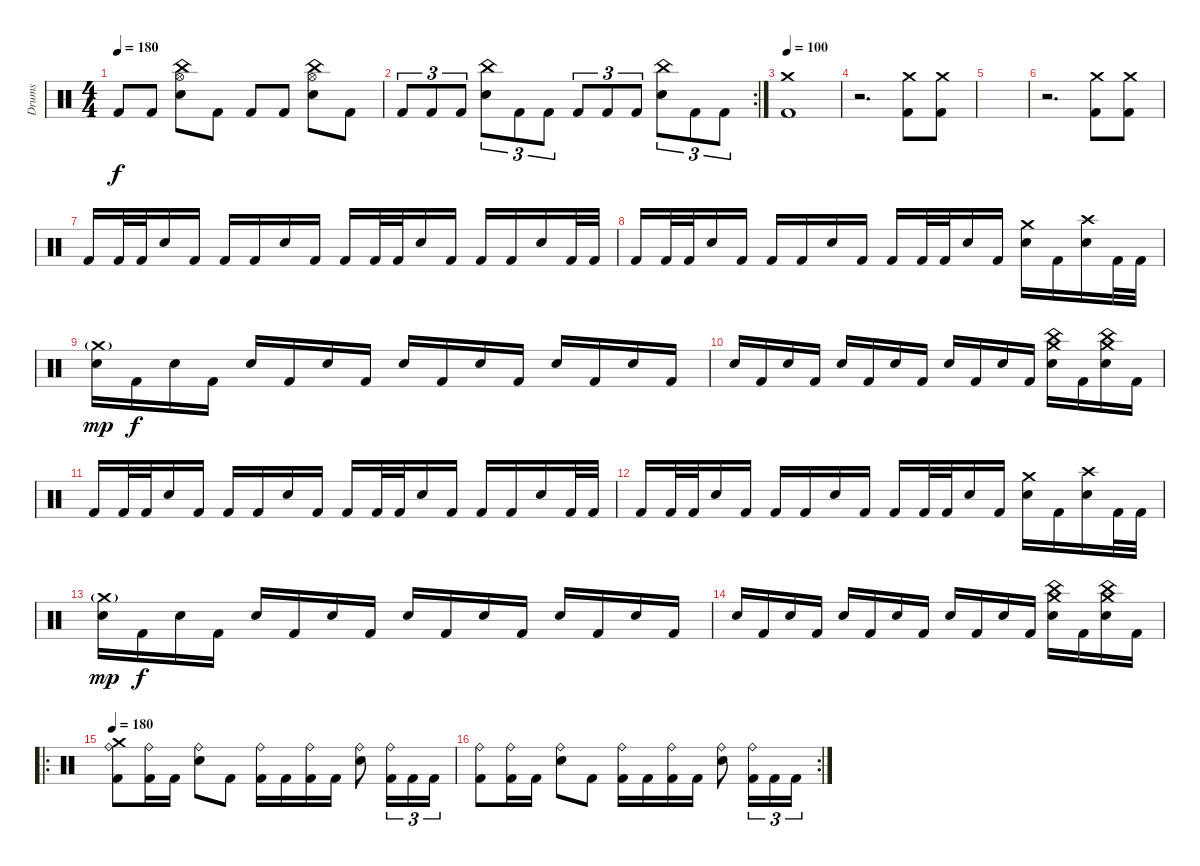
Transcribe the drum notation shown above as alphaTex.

\track ("Drums" "Drums") {instrument percussion}
\staff {score}
\articulation defaults
\ts (4 4)
\tempo 180
\clef neutral
\ks c "Kick (hit) 2".8{dy f} "Kick (hit) 2".8
("Electric Snare (hit)" "Hi-Hat (open)" "China (hit)").8 "Kick (hit) 2".8 "Kick (hit) 2".8 "Kick (hit) 2".8 ("Electric Snare (hit)" "Hi-Hat (open)" "China (hit)").8 "Kick (hit) 2".8 |
\rc 2 "Kick (hit) 2".8{tu (3 2)} "Kick (hit) 2".8{tu (3 2)} "Kick (hit) 2".8{tu (3 2)}
("China (hit)" "Electric Snare (hit)").8{tu (3 2)} "Kick (hit) 2".8{tu (3 2)} "Kick (hit) 2".8{tu (3 2)} "Kick (hit) 2".8{tu (3 2)} "Kick (hit) 2".8{tu (3 2)} "Kick (hit) 2".8{tu (3 2)} ("China (hit)" "Electric Snare (hit)").8{tu (3 2)} "Kick (hit) 2".8{tu (3 2)} "Kick (hit) 2".8{tu (3 2)} |
\tempo 100
("Kick (hit) 2" "Crash medium (hit)").1 |
r.2{d} ("Kick (hit) 2" "Crash medium (hit)").8 ("Kick (hit) 2" "Crash medium (hit)").8 |
|
r.2{d} ("Kick (hit) 2" "Crash medium (hit)").8 ("Kick (hit) 2" "Crash medium (hit)").8 |
"Kick (hit) 2".16 "Kick (hit) 2".32 "Kick (hit) 2".32 "Electric Snare (hit)".16 "Kick (hit) 2".16 "Kick (hit) 2".16 "Kick (hit) 2".16 "Electric Snare (hit)".16 "Kick (hit) 2".16 "Kick (hit) 2".16 "Kick (hit) 2".32 "Kick (hit) 2".32 "Electric Snare (hit)".16 "Kick (hit) 2".16 "Kick (hit) 2".16 "Kick (hit) 2".16 "Electric Snare (hit)".16 "Kick (hit) 2".32 "Kick (hit) 2".32 |
"Kick (hit) 2".16 "Kick (hit) 2".32 "Kick (hit) 2".32 "Electric Snare (hit)".16 "Kick (hit) 2".16 "Kick (hit) 2".16 "Kick (hit) 2".16 "Electric Snare (hit)".16 "Kick (hit) 2".16 "Kick (hit) 2".16 "Kick (hit) 2".32 "Kick (hit) 2".32 "Electric Snare (hit)".16 "Kick (hit) 2".16 ("Crash medium (hit)" "Electric Snare (hit)").16 "Kick (hit) 2".16 ("Crash high (hit)" "Electric Snare (hit)").16 "Kick (hit) 2".32 "Kick (hit) 2".32 |
("Crash medium (hit)"{g} "Electric Snare (hit)").16{dy mp} "Kick (hit) 2".16{dy f} "Electric Snare (hit)".16 "Kick (hit) 2".16 "Electric Snare (hit)".16 "Kick (hit) 2".16 "Electric Snare (hit)".16 "Kick (hit) 2".16 "Electric Snare (hit)".16 "Kick (hit) 2".16 "Electric Snare (hit)".16 "Kick (hit) 2".16 "Electric Snare (hit)".16 "Kick (hit) 2".16 "Electric Snare (hit)".16 "Kick (hit) 2".16 |
"Electric Snare (hit)".16 "Kick (hit) 2".16 "Electric Snare (hit)".16 "Kick (hit) 2".16 "Electric Snare (hit)".16 "Kick (hit) 2".16 "Electric Snare (hit)".16 "Kick (hit) 2".16 "Electric Snare (hit)".16 "Kick (hit) 2".16 "Electric Snare (hit)".16 "Kick (hit) 2".16 ("Crash medium (hit)" "China (hit)" "Electric Snare (hit)").16 "Kick (hit) 2".16 ("Crash medium (hit)" "China (hit)" "Electric Snare (hit)").16 "Kick (hit) 2".16 |
"Kick (hit) 2".16 "Kick (hit) 2".32 "Kick (hit) 2".32 "Electric Snare (hit)".16 "Kick (hit) 2".16 "Kick (hit) 2".16 "Kick (hit) 2".16 "Electric Snare (hit)".16 "Kick (hit) 2".16 "Kick (hit) 2".16 "Kick (hit) 2".32 "Kick (hit) 2".32 "Electric Snare (hit)".16 "Kick (hit) 2".16 "Kick (hit) 2".16 "Kick (hit) 2".16 "Electric Snare (hit)".16 "Kick (hit) 2".32 "Kick (hit) 2".32 |
"Kick (hit) 2".16 "Kick (hit) 2".32 "Kick (hit) 2".32 "Electric Snare (hit)".16 "Kick (hit) 2".16 "Kick (hit) 2".16 "Kick (hit) 2".16 "Electric Snare (hit)".16 "Kick (hit) 2".16 "Kick (hit) 2".16 "Kick (hit) 2".32 "Kick (hit) 2".32 "Electric Snare (hit)".16 "Kick (hit) 2".16 ("Crash medium (hit)" "Electric Snare (hit)").16 "Kick (hit) 2".16 ("Crash high (hit)" "Electric Snare (hit)").16 "Kick (hit) 2".32 "Kick (hit) 2".32 |
("Crash medium (hit)"{g} "Electric Snare (hit)").16{dy mp} "Kick (hit) 2".16{dy f} "Electric Snare (hit)".16 "Kick (hit) 2".16 "Electric Snare (hit)".16 "Kick (hit) 2".16 "Electric Snare (hit)".16 "Kick (hit) 2".16 "Electric Snare (hit)".16 "Kick (hit) 2".16 "Electric Snare (hit)".16 "Kick (hit) 2".16 "Electric Snare (hit)".16 "Kick (hit) 2".16 "Electric Snare (hit)".16 "Kick (hit) 2".16 |
"Electric Snare (hit)".16 "Kick (hit) 2".16 "Electric Snare (hit)".16 "Kick (hit) 2".16 "Electric Snare (hit)".16 "Kick (hit) 2".16 "Electric Snare (hit)".16 "Kick (hit) 2".16 "Electric Snare (hit)".16 "Kick (hit) 2".16 "Electric Snare (hit)".16 "Kick (hit) 2".16 ("Crash medium (hit)" "China (hit)" "Electric Snare (hit)").16 "Kick (hit) 2".16 ("Crash medium (hit)" "China (hit)" "Electric Snare (hit)").16 "Kick (hit) 2".16 |
\ro
\tempo 180
("Ride (bell)" "Kick (hit) 2" "Crash medium (hit)").8 ("Ride (bell)" "Kick (hit) 2").16 "Kick (hit) 2".16 ("Ride (bell)" "Electric Snare (hit)").8 "Kick (hit) 2".8 ("Ride (bell)" "Kick (hit) 2").16 "Kick (hit) 2".16 ("Ride (bell)" "Kick (hit) 2").16 "Kick (hit) 2".16 ("Ride (bell)" "Electric Snare (hit)").8 ("Ride (bell)" "Kick (hit) 2").16{tu (3 2)} "Kick (hit) 2".16{tu (3 2)} "Kick (hit) 2".16{tu (3 2)} |
\rc 2
("Ride (bell)" "Kick (hit) 2").8 ("Ride (bell)" "Kick (hit) 2").16 "Kick (hit) 2".16 ("Ride (bell)" "Electric Snare (hit)").8 "Kick (hit) 2".8 ("Ride (bell)" "Kick (hit) 2").16 "Kick (hit) 2".16 ("Ride (bell)" "Kick (hit) 2").16 "Kick (hit) 2".16 ("Ride (bell)" "Electric Snare (hit)").8 ("Ride (bell)" "Kick (hit) 2").16{tu (3 2)} "Kick (hit) 2".16{tu (3 2)} "Kick (hit) 2".16{tu (3 2)}
